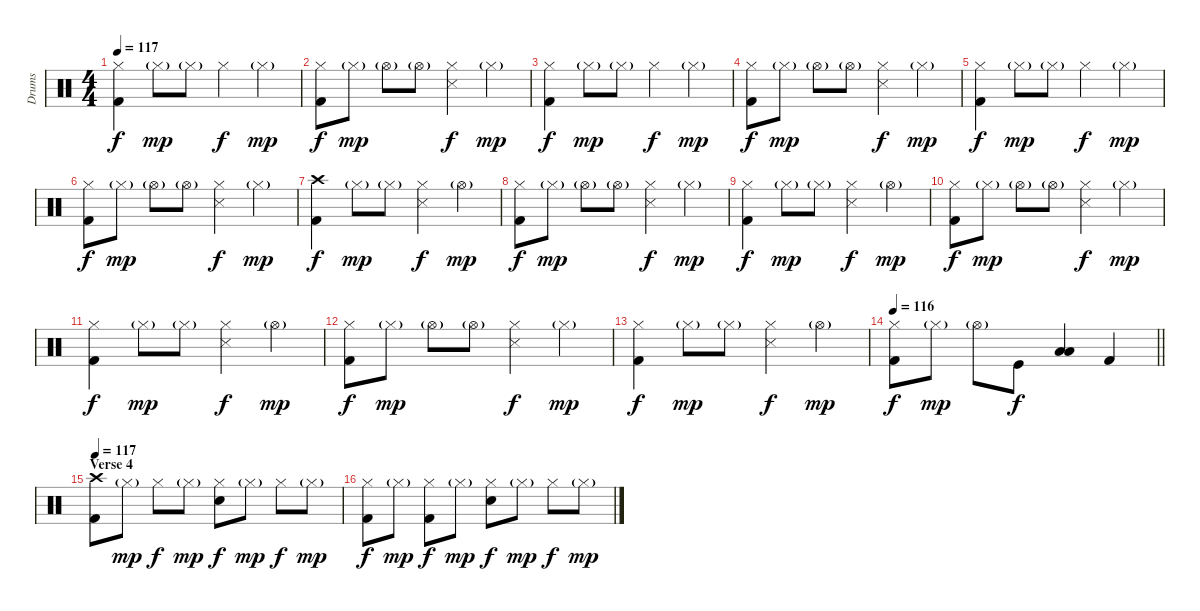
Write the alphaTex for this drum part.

\track ("Drums" "Drums") {instrument percussion}
\staff {score}
\articulation defaults
\ts (4 4)
\tempo 117
\clef neutral
\ks c
("Hi-Hat (closed)" "Kick (hit) 2").4{dy f} "Hi-Hat (closed)"{g}.8{dy mp} "Hi-Hat (closed)"{g}.8 "Hi-Hat (closed)".4{dy f} "Hi-Hat (closed)"{g}.4{dy mp} |
("Hi-Hat (closed)" "Kick (hit) 2").8{dy f} "Hi-Hat (closed)"{g}.8{dy mp} "Hi-Hat (open)"{g}.8 "Hi-Hat (open)"{g}.8 ("Hi-Hat (closed)" "Snare (side stick) 3").4{dy f} "Hi-Hat (closed)"{g}.4{dy mp} |
("Hi-Hat (closed)" "Kick (hit) 2").4{dy f} "Hi-Hat (closed)"{g}.8{dy mp} "Hi-Hat (closed)"{g}.8 "Hi-Hat (closed)".4{dy f} "Hi-Hat (closed)"{g}.4{dy mp} |
("Hi-Hat (closed)" "Kick (hit) 2").8{dy f} "Hi-Hat (closed)"{g}.8{dy mp} "Hi-Hat (open)"{g}.8 "Hi-Hat (open)"{g}.8 ("Hi-Hat (closed)" "Snare (side stick) 3").4{dy f} "Hi-Hat (closed)"{g}.4{dy mp} |
("Hi-Hat (closed)" "Kick (hit) 2").4{dy f} "Hi-Hat (closed)"{g}.8{dy mp} "Hi-Hat (closed)"{g}.8 "Hi-Hat (closed)".4{dy f} "Hi-Hat (closed)"{g}.4{dy mp} |
("Hi-Hat (closed)" "Kick (hit) 2").8{dy f} "Hi-Hat (closed)"{g}.8{dy mp} "Hi-Hat (open)"{g}.8 "Hi-Hat (open)"{g}.8 ("Hi-Hat (closed)" "Snare (side stick) 3").4{dy f} "Hi-Hat (closed)"{g}.4{dy mp} |
("Crash high (hit)" "Kick (hit) 2").4{dy f} "Hi-Hat (closed)"{g}.8{dy mp} "Hi-Hat (closed)"{g}.8 ("Hi-Hat (closed)" "Snare (side stick) 3").4{dy f} "Hi-Hat (open)"{g}.4{dy mp} |
("Hi-Hat (closed)" "Kick (hit) 2").8{dy f} "Hi-Hat (closed)"{g}.8{dy mp} "Hi-Hat (open)"{g}.8 "Hi-Hat (open)"{g}.8 ("Hi-Hat (closed)" "Snare (side stick) 3").4{dy f} "Hi-Hat (closed)"{g}.4{dy mp} |
("Hi-Hat (closed)" "Kick (hit) 2").4{dy f} "Hi-Hat (closed)"{g}.8{dy mp} "Hi-Hat (closed)"{g}.8 ("Hi-Hat (closed)" "Snare (side stick) 3").4{dy f} "Hi-Hat (open)"{g}.4{dy mp} |
("Hi-Hat (closed)" "Kick (hit) 2").8{dy f} "Hi-Hat (closed)"{g}.8{dy mp} "Hi-Hat (open)"{g}.8 "Hi-Hat (open)"{g}.8 ("Hi-Hat (closed)" "Snare (side stick) 3").4{dy f} "Hi-Hat (closed)"{g}.4{dy mp} |
("Hi-Hat (closed)" "Kick (hit) 2").4{dy f} "Hi-Hat (closed)"{g}.8{dy mp} "Hi-Hat (closed)"{g}.8 ("Hi-Hat (closed)" "Snare (side stick) 3").4{dy f} "Hi-Hat (open)"{g}.4{dy mp} |
("Hi-Hat (closed)" "Kick (hit) 2").8{dy f} "Hi-Hat (closed)"{g}.8{dy mp} "Hi-Hat (open)"{g}.8 "Hi-Hat (open)"{g}.8 ("Hi-Hat (closed)" "Snare (side stick) 3").4{dy f} "Hi-Hat (closed)"{g}.4{dy mp} |
("Hi-Hat (closed)" "Kick (hit) 2").4{dy f} "Hi-Hat (closed)"{g}.8{dy mp} "Hi-Hat (closed)"{g}.8 ("Hi-Hat (closed)" "Snare (side stick) 3").4{dy f} "Hi-Hat (open)"{g}.4{dy mp} |
\tempo 116
\barLineRight lightlight
("Hi-Hat (closed)" "Kick (hit) 2").8{dy f} "Hi-Hat (closed)"{g}.8{dy mp} "Hi-Hat (open)"{g}.8 "Kick (hit)".8{dy f} ("Low Tom (hit)" "Low Floor Tom (hit)").4 "Kick (hit) 2".4 |
\section ("" "Verse 4")
\tempo 117
("Crash high (hit)" "Kick (hit) 2").8 "Hi-Hat (closed)"{g}.8{dy mp} "Hi-Hat (closed)".8{dy f} "Hi-Hat (closed)"{g}.8{dy mp} ("Hi-Hat (closed)" "Snare (hit) 2").8{dy f} "Hi-Hat (closed)"{g}.8{dy mp} "Hi-Hat (closed)".8{dy f} "Hi-Hat (closed)"{g}.8{dy mp} |
("Hi-Hat (closed)" "Kick (hit) 2").8{dy f} "Hi-Hat (closed)"{g}.8{dy mp} ("Hi-Hat (closed)" "Kick (hit) 2").8{dy f} "Hi-Hat (closed)"{g}.8{dy mp} ("Hi-Hat (closed)" "Snare (hit) 2").8{dy f} "Hi-Hat (closed)"{g}.8{dy mp} "Hi-Hat (closed)".8{dy f} "Hi-Hat (closed)"{g}.8{dy mp}
